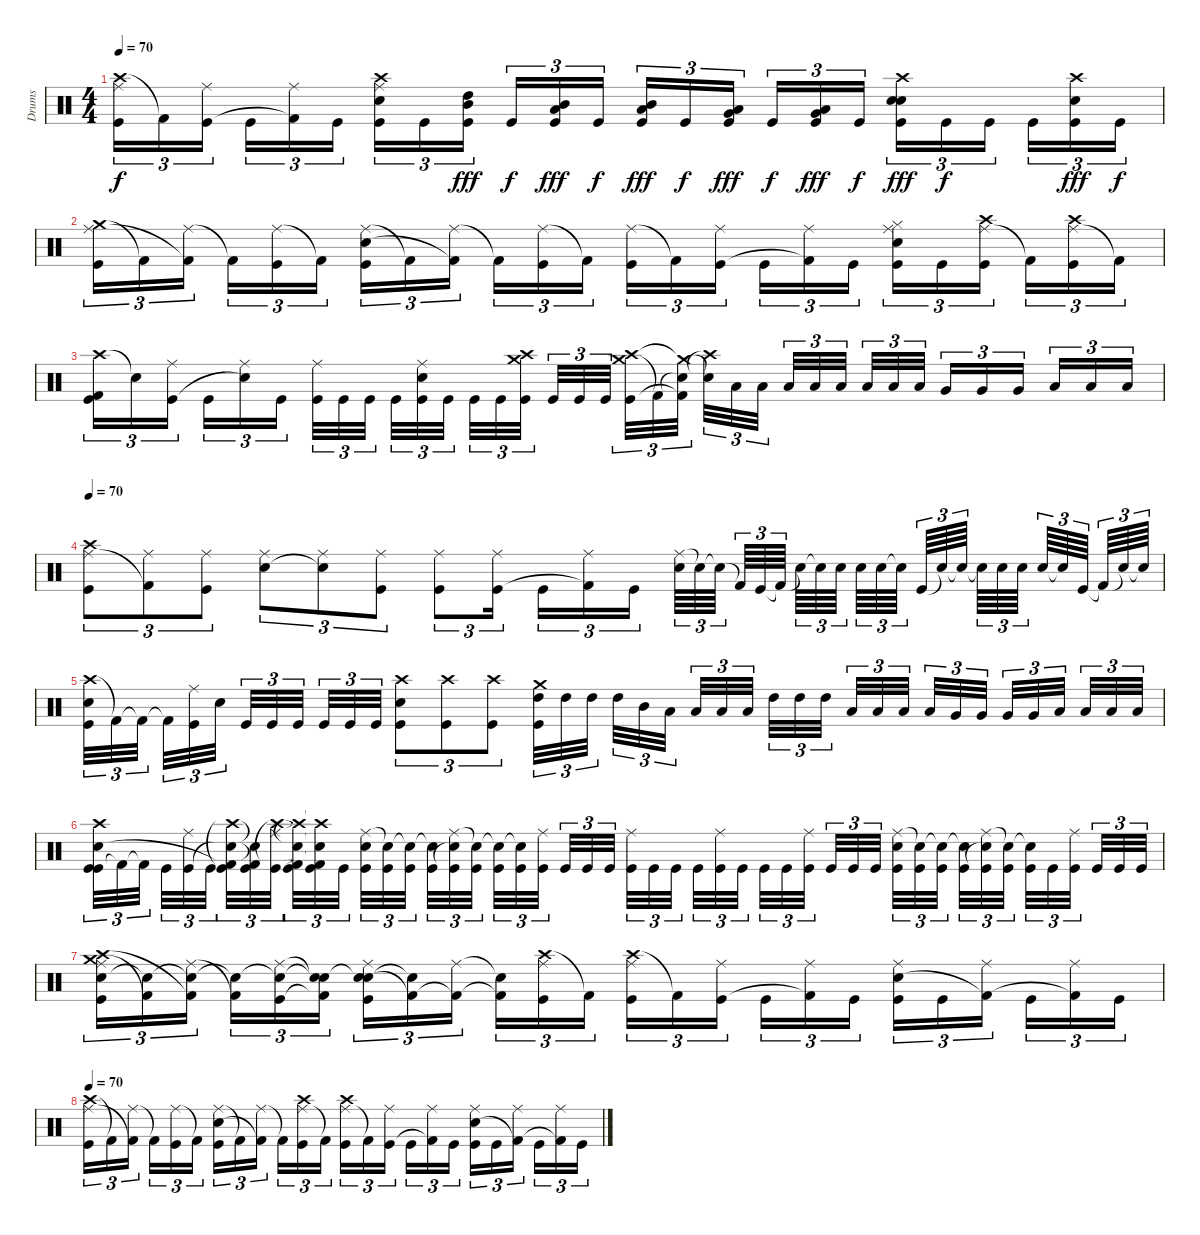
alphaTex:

\track ("Drums" "Drums") {instrument percussion}
\staff {score}
\articulation defaults
\ts (4 4)
\tempo 70
\clef neutral
\ks c
("Crash high (hit)" "Ride (middle)" "Kick (hit)").16{tu (3 2) dy f} "Kick (hit) 2"{t}.16{tu (3 2)} ("Ride (middle)" "Kick (hit)").16{tu (3 2)} "Kick (hit)".16{tu (3 2)} ("Ride (middle)" "Kick (hit) 2"{t}).16{tu (3 2)} "Kick (hit)".16{tu (3 2)} ("Crash high (hit)" "Ride (middle)" "Snare (hit) 2" "Kick (hit)").16{tu (3 2)} "Kick (hit)".16{tu (3 2)} ("Mid Tom (hit)" "High Tom (hit)" "Kick (hit)").16{tu (3 2) dy fff} "Kick (hit)".16{tu (3 2) dy f} ("Low Tom (hit)" "Mid Tom (hit)" "Kick (hit)").16{tu (3 2) dy fff} "Kick (hit)".16{tu (3 2) dy f} ("Low Tom (hit)" "Mid Tom (hit)" "Kick (hit)").16{tu (3 2) dy fff} "Kick (hit)".16{tu (3 2) dy f} ("Very Low Tom (hit)" "Low Tom (hit)" "Kick (hit)").16{tu (3 2) dy fff} "Kick (hit)".16{tu (3 2) dy f} ("Low Floor Tom (hit)" "Very Low Tom (hit)" "Kick (hit)").16{tu (3 2) dy fff} "Kick (hit)".16{tu (3 2) dy f} ("Crash high (hit)" "Snare (hit) 2" "Snare (hit) 2" "Kick (hit)").16{tu (3 2) dy fff} "Kick (hit)".16{tu (3 2) dy f} "Kick (hit)".16{tu (3 2)} "Kick (hit)".16{tu (3 2)} ("Crash high (hit)" "Snare (hit) 2" "Kick (hit)").16{tu (3 2) dy fff} "Kick (hit)".16{tu (3 2) dy f} |
("Crash medium (hit)" "Ride (middle)" "Kick (hit)").16{tu (3 2)} "Kick (hit) 2"{t}.16{tu (3 2)} ("Ride (middle)" "Kick (hit) 2"{t}).16{tu (3 2)} "Kick (hit) 2"{t}.16{tu (3 2)} ("Ride (middle)" "Kick (hit)").16{tu (3 2)} "Kick (hit) 2"{t}.16{tu (3 2)} ("Ride (middle)" "Snare (hit) 2" "Kick (hit)").16{tu (3 2)} "Kick (hit) 2"{t}.16{tu (3 2)} ("Ride (middle)" "Kick (hit) 2"{t}).16{tu (3 2)} "Kick (hit) 2"{t}.16{tu (3 2)} ("Ride (middle)" "Kick (hit)").16{tu (3 2)} "Kick (hit) 2"{t}.16{tu (3 2)} ("Ride (middle)" "Kick (hit)").16{tu (3 2)} "Kick (hit) 2"{t}.16{tu (3 2)} ("Ride (middle)" "Kick (hit)").16{tu (3 2)} "Kick (hit)".16{tu (3 2)} ("Ride (middle)" "Kick (hit) 2"{t}).16{tu (3 2)} "Kick (hit)".16{tu (3 2)} ("Ride (middle)" "Hi-Hat (closed)" "Snare (hit) 2" "Kick (hit)").16{tu (3 2)} "Kick (hit)".16{tu (3 2)} ("Ride (middle)" "Crash high (hit)" "Kick (hit)").16{tu (3 2)} "Kick (hit) 2"{t}.16{tu (3 2)} ("Ride (middle)" "Crash high (hit)" "Kick (hit)").16{tu (3 2)} "Kick (hit) 2"{t}.16{tu (3 2)} |
("Crash high (hit)" "Kick (hit) 2" "Kick (hit)").16{tu (3 2)} "Snare (hit)"{t}.16{tu (3 2)} ("Ride (middle)" "Kick (hit)").16{tu (3 2)} "Kick (hit)".16{tu (3 2)} ("Ride (middle)" "Snare (hit)"{t}).16{tu (3 2)} "Kick (hit)".16{tu (3 2)} ("Ride (middle)" "Kick (hit)").32{tu (3 2)} "Kick (hit)".32{tu (3 2)} "Kick (hit)".32{tu (3 2)} "Kick (hit)".32{tu (3 2)} ("Snare (hit) 2" "Ride (middle)" "Kick (hit)").32{tu (3 2)} "Kick (hit)".32{tu (3 2)} "Kick (hit)".32{tu (3 2)} "Kick (hit)".32{tu (3 2)} ("Crash medium (hit)" "Crash high (hit)" "Kick (hit)").32{tu (3 2)} "Kick (hit)".32{tu (3 2)} "Kick (hit)".32{tu (3 2)} "Kick (hit)".32{tu (3 2)} ("Crash medium (hit)" "Crash high (hit)" "Kick (hit)").32{tu (3 2)} "Kick (hit) 2"{t}.32{tu (3 2)} ("Snare (hit)"{t} "Crash medium (hit)"{t} "Kick (hit) 2"{t}).32{tu (3 2)} ("Crash high (hit)"{t} "Snare (hit)"{t}).32{tu (3 2)} "Low Tom (hit)".32{tu (3 2)} "Low Tom (hit)".32{tu (3 2)} "Low Tom (hit)".32{tu (3 2)} "Low Tom (hit)".32{tu (3 2)} "Low Tom (hit)".32{tu (3 2)} "Low Tom (hit)".32{tu (3 2)} "Low Tom (hit)".32{tu (3 2)} "Low Tom (hit)".32{tu (3 2)} "Very Low Tom (hit)".16{tu (3 2)} "Very Low Tom (hit)".16{tu (3 2)} "Very Low Tom (hit)".16{tu (3 2)} "Low Floor Tom (hit)".16{tu (3 2)} "Low Floor Tom (hit)".16{tu (3 2)} "Low Floor Tom (hit)".16{tu (3 2)} |
\tempo 70
("Crash high (hit)" "Ride (middle)" "Kick (hit)").8{tu (3 2)} ("Ride (middle)" "Kick (hit) 2"{t}).8{tu (3 2)} ("Ride (middle)" "Kick (hit)").8{tu (3 2)} ("Ride (middle)" "Snare (hit) 2").8{tu (3 2)} ("Ride (middle)" "Snare (hit) 2"{t}).8{tu (3 2)} ("Ride (middle)" "Kick (hit)").8{tu (3 2)} ("Ride (middle)" "Kick (hit)").8{tu (3 2)} ("Ride (middle)" "Kick (hit)").16{tu (3 2)} "Kick (hit)".16{tu (3 2)} ("Ride (middle)" "Kick (hit) 2"{t}).16{tu (3 2)} "Kick (hit)".16{tu (3 2)} ("Ride (middle)" "Snare (hit) 2").64{tu (3 2)} "Snare (hit) 2"{t}.64{tu (3 2)} "Snare (hit) 2"{t}.64{tu (3 2)} "Kick (hit) 2"{t}.64{tu (3 2)} "Kick (hit)".64{tu (3 2)} "Kick (hit) 2"{t}.64{tu (3 2)} "Snare (hit)"{t}.64{tu (3 2)} "Snare (hit) 2"{t}.64{tu (3 2)} "Snare (hit) 2".64{tu (3 2)} "Snare (hit) 2".64{tu (3 2)} "Snare (hit) 2".64{tu (3 2)} "Snare (hit) 2"{t}.64{tu (3 2)} "Kick (hit)".64{tu (3 2)} "Snare (hit) 2"{t}.64{tu (3 2)} "Snare (hit) 2"{t}.64{tu (3 2)} "Snare (hit) 2"{t}.64{tu (3 2)} "Snare (hit) 2".64{tu (3 2)} "Snare (hit) 2".64{tu (3 2)} "Snare (hit) 2".64{tu (3 2)} "Snare (hit) 2"{t}.64{tu (3 2)} "Kick (hit)".64{tu (3 2)} "Kick (hit) 2"{t}.64{tu (3 2)} "Snare (hit) 2"{t}.64{tu (3 2)} "Snare (hit) 2"{t}.64{tu (3 2)} |
("Crash high (hit)" "Kick (hit)" "Snare (hit) 2").32{tu (3 2)} "Kick (hit) 2"{t}.32{tu (3 2)} "Kick (hit) 2"{t}.32{tu (3 2)} "Kick (hit) 2"{t}.32{tu (3 2)} ("Ride (middle)" "Kick (hit)").32{tu (3 2)} "Snare (hit) 2".32{tu (3 2)} "Kick (hit)".32{tu (3 2)} "Kick (hit)".32{tu (3 2)} "Kick (hit)".32{tu (3 2)} "Kick (hit)".32{tu (3 2)} "Kick (hit)".32{tu (3 2)} "Kick (hit)".32{tu (3 2)} ("Crash high (hit)" "Snare (hit) 2" "Kick (hit)").8{tu (3 2)} ("Crash high (hit)" "Kick (hit)").8{tu (3 2)} ("Crash high (hit)" "Kick (hit)").8{tu (3 2)} ("Crash medium (hit)" "High Tom (hit)" "Kick (hit)").32{tu (3 2)} "High Tom (hit)".32{tu (3 2)} "High Tom (hit)".32{tu (3 2)} "High Tom (hit)".32{tu (3 2)} "Mid Tom (hit)".32{tu (3 2)} "Low Tom (hit)".32{tu (3 2)} "Low Tom (hit)".32{tu (3 2)} "Low Tom (hit)".32{tu (3 2)} "Low Tom (hit)".32{tu (3 2)} "High Tom (hit)".32{tu (3 2)} "High Tom (hit)".32{tu (3 2)} "High Tom (hit)".32{tu (3 2)} "Low Tom (hit)".32{tu (3 2)} "Low Tom (hit)".32{tu (3 2)} "Low Tom (hit)".32{tu (3 2)} "Low Tom (hit)".32{tu (3 2)} "Very Low Tom (hit)".32{tu (3 2)} "Very Low Tom (hit)".32{tu (3 2)} "Very Low Tom (hit)".32{tu (3 2)} "Very Low Tom (hit)".32{tu (3 2)} "Low Floor Tom (hit)".32{tu (3 2)} "Low Floor Tom (hit)".32{tu (3 2)} "Low Floor Tom (hit)".32{tu (3 2)} "Low Floor Tom (hit)".32{tu (3 2)} |
("Kick (hit)" "Crash high (hit)" "Snare (hit) 2" "Kick (hit)").32{tu (3 2)} "Kick (hit) 2"{t}.32{tu (3 2)} "Kick (hit) 2"{t}.32{tu (3 2)} "Kick (hit)".32{tu (3 2)} ("Ride (middle)" "Kick (hit)").32{tu (3 2)} "Kick (hit)".32{tu (3 2)} ("Crash high (hit)"{t} "Snare (hit) 2"{t} "Kick (hit) 2"{t} "Kick (hit)").32{tu (3 2)} ("Snare (hit) 2"{t} "Kick (hit) 2"{t} "Kick (hit)").32{tu (3 2)} ("Ride (middle)" "Crash high (hit)"{t} "Kick (hit)").32{tu (3 2)} ("Crash high (hit)"{t} "Snare (hit) 2"{t} "Kick (hit) 2"{t} "Kick (hit)").32{tu (3 2)} ("Crash high (hit)"{t} "Snare (hit) 2"{t} "Kick (hit) 2"{t} "Kick (hit)").32{tu (3 2)} "Kick (hit)".32{tu (3 2)} ("Ride (middle)" "Snare (hit) 2" "Kick (hit)").32{tu (3 2)} ("Snare (hit)"{t} "Kick (hit)").32{tu (3 2)} ("Snare (hit)"{t} "Kick (hit)").32{tu (3 2)} ("Snare (hit)"{t} "Kick (hit)").32{tu (3 2)} ("Ride (middle)" "Snare (hit)"{t} "Kick (hit)").32{tu (3 2)} ("Snare (hit)"{t} "Kick (hit)").32{tu (3 2)} ("Snare (hit)"{t} "Kick (hit)").32{tu (3 2)} ("Snare (hit)"{t} "Kick (hit)").32{tu (3 2)} ("Ride (middle)" "Kick (hit)").32{tu (3 2)} "Kick (hit)".32{tu (3 2)} "Kick (hit)".32{tu (3 2)} "Kick (hit)".32{tu (3 2)} ("Ride (middle)" "Kick (hit)").32{tu (3 2)} "Kick (hit)".32{tu (3 2)} "Kick (hit)".32{tu (3 2)} "Kick (hit)".32{tu (3 2)} ("Ride (middle)" "Kick (hit)").32{tu (3 2)} "Kick (hit)".32{tu (3 2)} "Kick (hit)".32{tu (3 2)} "Kick (hit)".32{tu (3 2)} ("Ride (middle)" "Kick (hit)").32{tu (3 2)} "Kick (hit)".32{tu (3 2)} "Kick (hit)".32{tu (3 2)} "Kick (hit)".32{tu (3 2)} ("Ride (middle)" "Snare (hit) 2" "Kick (hit)").32{tu (3 2)} ("Snare (hit)"{t} "Kick (hit)").32{tu (3 2)} ("Snare (hit)"{t} "Kick (hit)").32{tu (3 2)} ("Snare (hit)"{t} "Kick (hit)").32{tu (3 2)} ("Ride (middle)" "Snare (hit)"{t} "Kick (hit)").32{tu (3 2)} ("Snare (hit)"{t} "Kick (hit)").32{tu (3 2)} ("Snare (hit)"{t} "Kick (hit)").32{tu (3 2)} "Kick (hit)".32{tu (3 2)} ("Ride (middle)" "Kick (hit)").32{tu (3 2)} "Kick (hit)".32{tu (3 2)} "Kick (hit)".32{tu (3 2)} "Kick (hit)".32{tu (3 2)} |
("Snare (hit) 2" "Crash medium (hit)" "Crash high (hit)" "Ride (middle)" "Kick (hit)").16{tu (3 2)} ("Snare (hit)"{t} "Kick (hit) 2"{t}).16{tu (3 2)} ("Snare (hit)"{t} "Ride (middle)" "Kick (hit) 2"{t}).16{tu (3 2)} ("Snare (hit)"{t} "Kick (hit) 2"{t}).16{tu (3 2)} ("Snare (hit)"{t} "Ride (middle)" "Kick (hit)").16{tu (3 2)} ("Snare (hit)"{t} "Snare (hit)"{t} "Kick (hit) 2"{t}).16{tu (3 2)} ("Snare (hit)"{t} "Snare (hit) 2" "Ride (middle)" "Kick (hit)").16{tu (3 2)} ("Snare (hit)"{t} "Kick (hit) 2"{t}).16{tu (3 2)} ("Ride (middle)" "Kick (hit) 2"{t}).16{tu (3 2)} ("Snare (hit)"{t} "Kick (hit) 2"{t}).16{tu (3 2)} ("Crash high (hit)" "Ride (middle)" "Kick (hit)").16{tu (3 2)} "Kick (hit) 2"{t}.16{tu (3 2)} ("Crash high (hit)" "Ride (middle)" "Kick (hit)").16{tu (3 2)} "Kick (hit) 2"{t}.16{tu (3 2)} ("Ride (middle)" "Kick (hit)").16{tu (3 2)} "Kick (hit)".16{tu (3 2)} ("Ride (middle)" "Kick (hit) 2"{t}).16{tu (3 2)} "Kick (hit)".16{tu (3 2)} ("Ride (middle)" "Snare (hit) 2" "Kick (hit)").16{tu (3 2)} "Kick (hit)".16{tu (3 2)} ("Ride (middle)" "Kick (hit) 2"{t}).16{tu (3 2)} "Kick (hit)".16{tu (3 2)} ("Ride (middle)" "Kick (hit) 2"{t}).16{tu (3 2)} "Kick (hit)".16{tu (3 2)} |
\tempo 70
("Crash high (hit)" "Ride (middle)" "Kick (hit)").16{tu (3 2)} "Kick (hit) 2"{t}.16{tu (3 2)} ("Ride (middle)" "Kick (hit) 2"{t}).16{tu (3 2)} "Kick (hit) 2"{t}.16{tu (3 2)} ("Ride (middle)" "Kick (hit)").16{tu (3 2)} "Kick (hit) 2"{t}.16{tu (3 2)} ("Ride (middle)" "Snare (hit) 2" "Kick (hit)").16{tu (3 2)} "Kick (hit) 2"{t}.16{tu (3 2)} ("Ride (middle)" "Kick (hit) 2"{t}).16{tu (3 2)} "Kick (hit) 2"{t}.16{tu (3 2)} ("Ride (middle)" "Crash high (hit)" "Kick (hit)").16{tu (3 2)} "Kick (hit) 2"{t}.16{tu (3 2)} ("Ride (middle)" "Crash high (hit)" "Kick (hit)").16{tu (3 2)} "Kick (hit) 2"{t}.16{tu (3 2)} ("Ride (middle)" "Kick (hit)").16{tu (3 2)} "Kick (hit)".16{tu (3 2)} ("Ride (middle)" "Kick (hit) 2"{t}).16{tu (3 2)} "Kick (hit)".16{tu (3 2)} ("Ride (middle)" "Snare (hit) 2" "Kick (hit)").16{tu (3 2)} "Kick (hit)".16{tu (3 2)} ("Ride (middle)" "Kick (hit) 2"{t}).16{tu (3 2)} "Kick (hit)".16{tu (3 2)} ("Ride (middle)" "Kick (hit) 2"{t}).16{tu (3 2)} "Kick (hit)".16{tu (3 2)}
